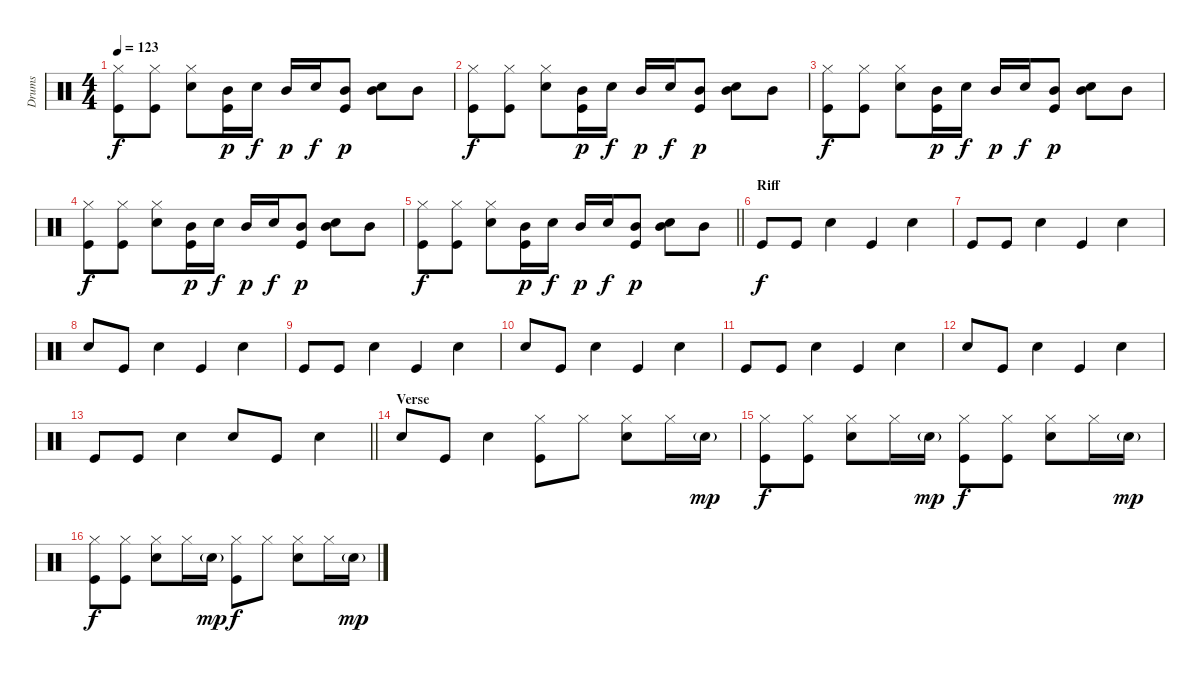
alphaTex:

\track ("Drums" "Drums") {instrument percussion}
\staff {score}
\articulation defaults
\ts (4 4)
\tempo 123
\clef neutral
\ks c
("Hi-Hat (closed)" "Kick (hit)").8{dy f} ("Hi-Hat (closed)" "Kick (hit)").8 ("Hi-Hat (closed)" "Snare (hit) 2").8 ("Mid Tom (hit)" "Kick (hit)").16{dy p} "Snare (hit) 2".16{dy f} "Mid Tom (hit)".16{dy p} "Snare (hit) 2".16{dy f} ("Mid Tom (hit)" "Kick (hit)").8{dy p} ("Snare (hit) 2" "Mid Tom (hit)").8 "Mid Tom (hit)".8 |
("Hi-Hat (closed)" "Kick (hit)").8{dy f} ("Hi-Hat (closed)" "Kick (hit)").8 ("Hi-Hat (closed)" "Snare (hit) 2").8 ("Mid Tom (hit)" "Kick (hit)").16{dy p} "Snare (hit) 2".16{dy f} "Mid Tom (hit)".16{dy p} "Snare (hit) 2".16{dy f} ("Mid Tom (hit)" "Kick (hit)").8{dy p} ("Snare (hit) 2" "Mid Tom (hit)").8 "Mid Tom (hit)".8 |
("Hi-Hat (closed)" "Kick (hit)").8{dy f} ("Hi-Hat (closed)" "Kick (hit)").8 ("Hi-Hat (closed)" "Snare (hit) 2").8 ("Mid Tom (hit)" "Kick (hit)").16{dy p} "Snare (hit) 2".16{dy f} "Mid Tom (hit)".16{dy p} "Snare (hit) 2".16{dy f} ("Mid Tom (hit)" "Kick (hit)").8{dy p} ("Snare (hit) 2" "Mid Tom (hit)").8 "Mid Tom (hit)".8 |
("Hi-Hat (closed)" "Kick (hit)").8{dy f} ("Hi-Hat (closed)" "Kick (hit)").8 ("Hi-Hat (closed)" "Snare (hit) 2").8 ("Mid Tom (hit)" "Kick (hit)").16{dy p} "Snare (hit) 2".16{dy f} "Mid Tom (hit)".16{dy p} "Snare (hit) 2".16{dy f} ("Mid Tom (hit)" "Kick (hit)").8{dy p} ("Snare (hit) 2" "Mid Tom (hit)").8 "Mid Tom (hit)".8 |
\barLineRight lightlight
("Hi-Hat (closed)" "Kick (hit)").8{dy f} ("Hi-Hat (closed)" "Kick (hit)").8 ("Hi-Hat (closed)" "Snare (hit) 2").8 ("Mid Tom (hit)" "Kick (hit)").16{dy p} "Snare (hit) 2".16{dy f} "Mid Tom (hit)".16{dy p} "Snare (hit) 2".16{dy f} ("Mid Tom (hit)" "Kick (hit)").8{dy p} ("Snare (hit) 2" "Mid Tom (hit)").8 "Mid Tom (hit)".8 |
\section ("" "Riff")
"Kick (hit)".8{dy f} "Kick (hit)".8 "Snare (hit) 2".4 "Kick (hit)".4 "Snare (hit) 2".4 |
"Kick (hit)".8 "Kick (hit)".8 "Snare (hit) 2".4 "Kick (hit)".4 "Snare (hit) 2".4 |
"Snare (hit) 2".8 "Kick (hit)".8 "Snare (hit) 2".4 "Kick (hit)".4 "Snare (hit) 2".4 |
"Kick (hit)".8 "Kick (hit)".8 "Snare (hit) 2".4 "Kick (hit)".4 "Snare (hit) 2".4 |
"Snare (hit) 2".8 "Kick (hit)".8 "Snare (hit) 2".4 "Kick (hit)".4 "Snare (hit) 2".4 |
"Kick (hit)".8 "Kick (hit)".8 "Snare (hit) 2".4 "Kick (hit)".4 "Snare (hit) 2".4 |
"Snare (hit) 2".8 "Kick (hit)".8 "Snare (hit) 2".4 "Kick (hit)".4 "Snare (hit) 2".4 |
\barLineRight lightlight "Kick (hit)".8 "Kick (hit)".8 "Snare (hit) 2".4 "Snare (hit) 2".8 "Kick (hit)".8 "Snare (hit) 2".4
|
\section ("" "Verse")
"Snare (hit) 2".8 "Kick (hit)".8 "Snare (hit) 2".4 ("Hi-Hat (closed)" "Kick (hit)").8 "Hi-Hat (closed)".8 ("Hi-Hat (closed)" "Snare (hit) 2").8 "Hi-Hat (closed)".16 "Snare (hit) 2"{g}.16{dy mp} |
("Hi-Hat (closed)" "Kick (hit)").8{dy f} ("Hi-Hat (closed)" "Kick (hit)").8 ("Hi-Hat (closed)" "Snare (hit) 2").8 "Hi-Hat (closed)".16 "Snare (hit) 2"{g}.16{dy mp} ("Hi-Hat (closed)" "Kick (hit)").8{dy f} ("Hi-Hat (closed)" "Kick (hit)").8 ("Hi-Hat (closed)" "Snare (hit) 2").8 "Hi-Hat (closed)".16 "Snare (hit) 2"{g}.16{dy mp} |
("Hi-Hat (closed)" "Kick (hit)").8{dy f} ("Hi-Hat (closed)" "Kick (hit)").8 ("Hi-Hat (closed)" "Snare (hit) 2").8 "Hi-Hat (closed)".16 "Snare (hit) 2"{g}.16{dy mp} ("Hi-Hat (closed)" "Kick (hit)").8{dy f} "Hi-Hat (closed)".8 ("Hi-Hat (closed)" "Snare (hit) 2").8 "Hi-Hat (closed)".16 "Snare (hit) 2"{g}.16{dy mp}
